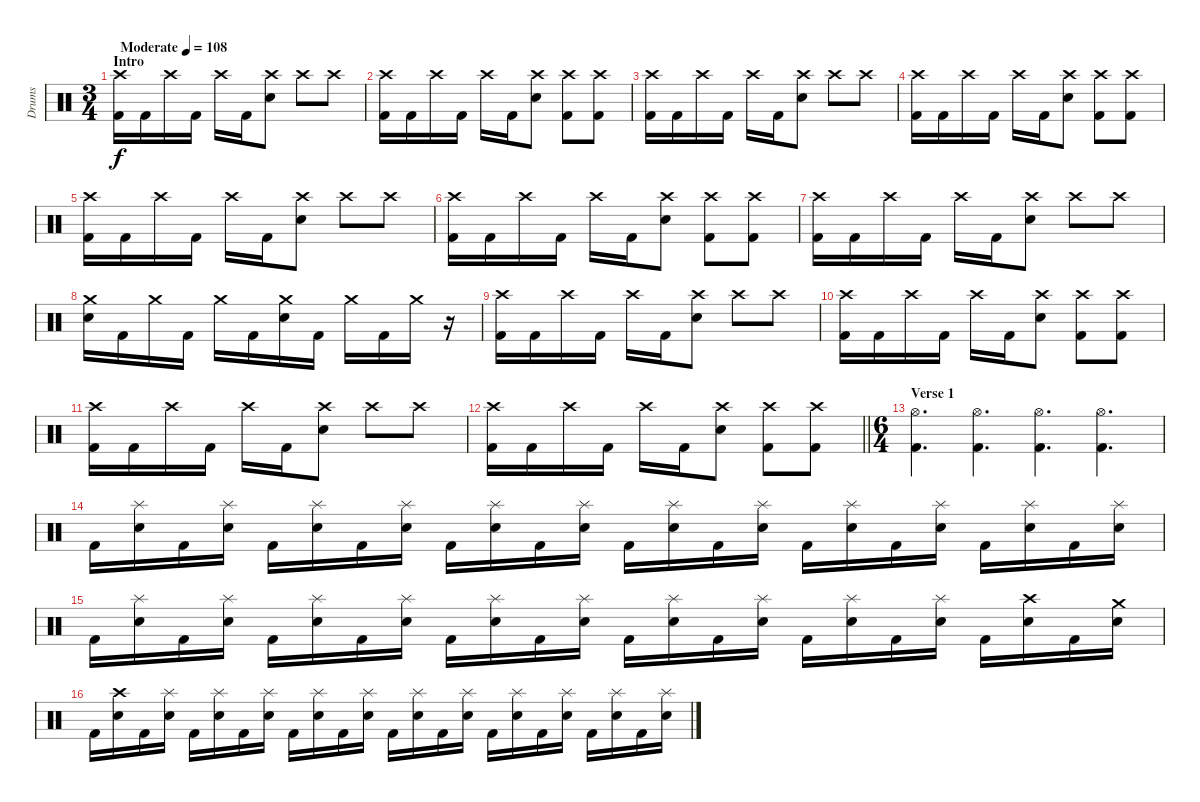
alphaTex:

\track ("Drums" "Drums") {instrument percussion}
\staff {score}
\articulation defaults
\ts (3 4)
\section ("" "Intro")
\tempo (108 "Moderate")
\clef neutral
\ks c
("Crash high (hit)" "Kick (hit) 2").16{dy f} "Kick (hit) 2".16 "Crash high (hit)".16 "Kick (hit) 2".16 "Crash high (hit)".16 "Kick (hit) 2".16 ("Crash high (hit)" "Electric Snare (hit)").8 "Crash high (hit)".8 "Crash high (hit)".8 |
("Crash high (hit)" "Kick (hit) 2").16 "Kick (hit) 2".16 "Crash high (hit)".16 "Kick (hit) 2".16 "Crash high (hit)".16 "Kick (hit) 2".16 ("Crash high (hit)" "Electric Snare (hit)").8 ("Crash high (hit)" "Kick (hit) 2").8 ("Crash high (hit)" "Kick (hit) 2").8 |
("Crash high (hit)" "Kick (hit) 2").16 "Kick (hit) 2".16 "Crash high (hit)".16 "Kick (hit) 2".16 "Crash high (hit)".16 "Kick (hit) 2".16 ("Crash high (hit)" "Electric Snare (hit)").8 "Crash high (hit)".8 "Crash high (hit)".8 |
("Crash high (hit)" "Kick (hit) 2").16 "Kick (hit) 2".16 "Crash high (hit)".16 "Kick (hit) 2".16 "Crash high (hit)".16 "Kick (hit) 2".16 ("Crash high (hit)" "Electric Snare (hit)").8 ("Crash high (hit)" "Kick (hit) 2").8 ("Crash high (hit)" "Kick (hit) 2").8 |
("Crash high (hit)" "Kick (hit) 2").16 "Kick (hit) 2".16 "Crash high (hit)".16 "Kick (hit) 2".16 "Crash high (hit)".16 "Kick (hit) 2".16 ("Crash high (hit)" "Electric Snare (hit)").8 "Crash high (hit)".8 "Crash high (hit)".8 |
("Crash high (hit)" "Kick (hit) 2").16 "Kick (hit) 2".16 "Crash high (hit)".16 "Kick (hit) 2".16 "Crash high (hit)".16 "Kick (hit) 2".16 ("Crash high (hit)" "Electric Snare (hit)").8 ("Crash high (hit)" "Kick (hit) 2").8 ("Crash high (hit)" "Kick (hit) 2").8 |
("Crash high (hit)" "Kick (hit) 2").16 "Kick (hit) 2".16 "Crash high (hit)".16 "Kick (hit) 2".16 "Crash high (hit)".16 "Kick (hit) 2".16 ("Crash high (hit)" "Electric Snare (hit)").8 "Crash high (hit)".8 "Crash high (hit)".8 |
("Crash medium (hit)" "Electric Snare (hit)").16 "Kick (hit) 2".16 "Crash medium (hit)".16 "Kick (hit) 2".16 "Crash medium (hit)".16 "Kick (hit) 2".16 ("Crash medium (hit)" "Electric Snare (hit)").16 "Kick (hit) 2".16 "Crash medium (hit)".16 "Kick (hit) 2".16 "Crash medium (hit)".16 r.16 |
("Crash high (hit)" "Kick (hit) 2").16 "Kick (hit) 2".16 "Crash high (hit)".16 "Kick (hit) 2".16 "Crash high (hit)".16 "Kick (hit) 2".16 ("Crash high (hit)" "Electric Snare (hit)").8 "Crash high (hit)".8 "Crash high (hit)".8 |
("Crash high (hit)" "Kick (hit) 2").16 "Kick (hit) 2".16 "Crash high (hit)".16 "Kick (hit) 2".16 "Crash high (hit)".16 "Kick (hit) 2".16 ("Crash high (hit)" "Electric Snare (hit)").8 ("Crash high (hit)" "Kick (hit) 2").8 ("Crash high (hit)" "Kick (hit) 2").8 |
("Crash high (hit)" "Kick (hit) 2").16 "Kick (hit) 2".16 "Crash high (hit)".16 "Kick (hit) 2".16 "Crash high (hit)".16 "Kick (hit) 2".16 ("Crash high (hit)" "Electric Snare (hit)").8 "Crash high (hit)".8 "Crash high (hit)".8 |
\barLineRight lightlight
("Crash high (hit)" "Kick (hit) 2").16 "Kick (hit) 2".16 "Crash high (hit)".16 "Kick (hit) 2".16 "Crash high (hit)".16 "Kick (hit) 2".16 ("Crash high (hit)" "Electric Snare (hit)").8 ("Crash high (hit)" "Kick (hit) 2").8 ("Crash high (hit)" "Kick (hit) 2").8 |
\ts (6 4)
\section ("" "Verse 1")
("Hi-Hat (open)" "Kick (hit) 2").4{d} ("Hi-Hat (open)" "Kick (hit) 2").4{d} ("Hi-Hat (open)" "Kick (hit) 2").4{d} ("Hi-Hat (open)" "Kick (hit) 2").4{d} |
"Kick (hit) 2".16 ("Splash (hit)" "Electric Snare (hit)").16 "Kick (hit) 2".16 ("Splash (hit)" "Electric Snare (hit)").16 "Kick (hit) 2".16 ("Splash (hit)" "Electric Snare (hit)").16 "Kick (hit) 2".16 ("Splash (hit)" "Electric Snare (hit)").16 "Kick (hit) 2".16 ("Splash (hit)" "Electric Snare (hit)").16 "Kick (hit) 2".16 ("Splash (hit)" "Electric Snare (hit)").16 "Kick (hit) 2".16 ("Splash (hit)" "Electric Snare (hit)").16 "Kick (hit) 2".16 ("Splash (hit)" "Electric Snare (hit)").16 "Kick (hit) 2".16 ("Splash (hit)" "Electric Snare (hit)").16 "Kick (hit) 2".16 ("Splash (hit)" "Electric Snare (hit)").16 "Kick (hit) 2".16 ("Splash (hit)" "Electric Snare (hit)").16 "Kick (hit) 2".16 ("Splash (hit)" "Electric Snare (hit)").16 |
"Kick (hit) 2".16 ("Splash (hit)" "Electric Snare (hit)").16 "Kick (hit) 2".16 ("Splash (hit)" "Electric Snare (hit)").16 "Kick (hit) 2".16 ("Splash (hit)" "Electric Snare (hit)").16 "Kick (hit) 2".16 ("Splash (hit)" "Electric Snare (hit)").16 "Kick (hit) 2".16 ("Splash (hit)" "Electric Snare (hit)").16 "Kick (hit) 2".16 ("Splash (hit)" "Electric Snare (hit)").16 "Kick (hit) 2".16 ("Splash (hit)" "Electric Snare (hit)").16 "Kick (hit) 2".16 ("Splash (hit)" "Electric Snare (hit)").16 "Kick (hit) 2".16 ("Splash (hit)" "Electric Snare (hit)").16 "Kick (hit) 2".16 ("Splash (hit)" "Electric Snare (hit)").16 "Kick (hit) 2".16 ("Crash high (hit)" "Electric Snare (hit)").16 "Kick (hit) 2".16 ("Crash medium (hit)" "Electric Snare (hit)").16 |
"Kick (hit) 2".16 ("Crash high (hit)" "Electric Snare (hit)").16 "Kick (hit) 2".16 ("Splash (hit)" "Electric Snare (hit)").16 "Kick (hit) 2".16 ("Splash (hit)" "Electric Snare (hit)").16 "Kick (hit) 2".16 ("Splash (hit)" "Electric Snare (hit)").16 "Kick (hit) 2".16 ("Splash (hit)" "Electric Snare (hit)").16 "Kick (hit) 2".16 ("Splash (hit)" "Electric Snare (hit)").16 "Kick (hit) 2".16 ("Splash (hit)" "Electric Snare (hit)").16 "Kick (hit) 2".16 ("Splash (hit)" "Electric Snare (hit)").16 "Kick (hit) 2".16 ("Splash (hit)" "Electric Snare (hit)").16 "Kick (hit) 2".16 ("Splash (hit)" "Electric Snare (hit)").16 "Kick (hit) 2".16 ("Splash (hit)" "Electric Snare (hit)").16 "Kick (hit) 2".16 ("Splash (hit)" "Electric Snare (hit)").16
